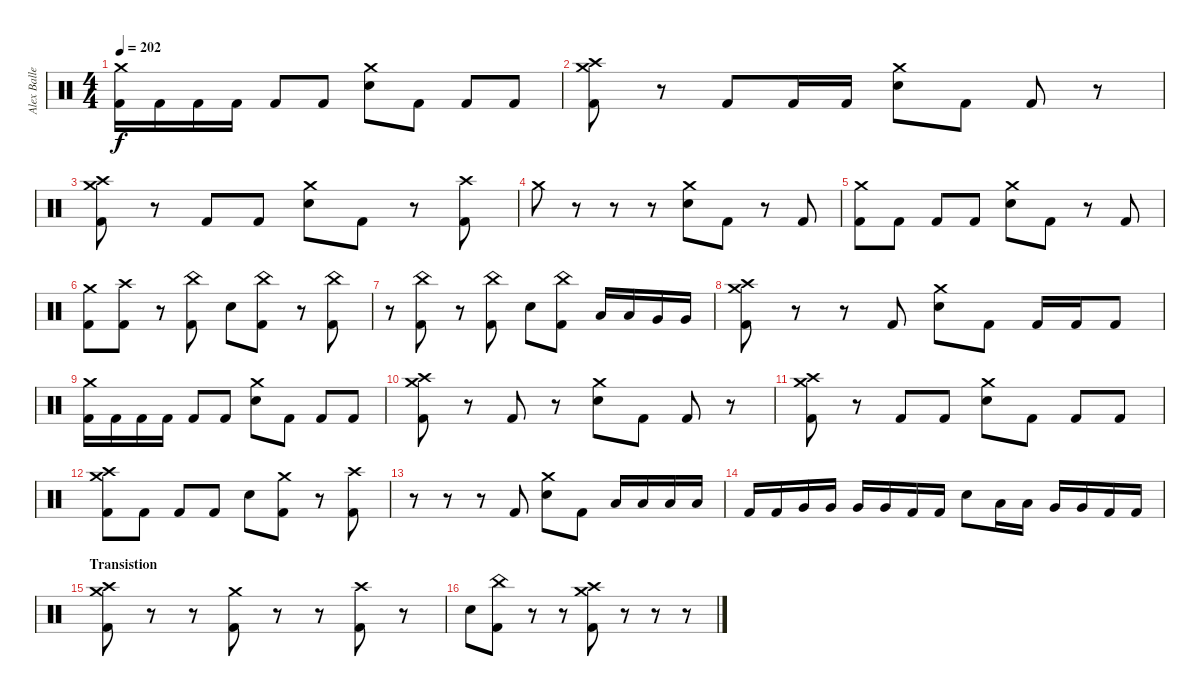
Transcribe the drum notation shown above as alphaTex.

\track ("Alex Ballew" "Alex Balle") {instrument percussion}
\staff {score}
\articulation defaults
\ts (4 4)
\tempo 202
\clef neutral
\ks c
("Crash medium (hit)" "Kick (hit) 2").16{dy f} "Kick (hit) 2".16 "Kick (hit) 2".16 "Kick (hit) 2".16 "Kick (hit) 2".8 "Kick (hit) 2".8 ("Crash medium (hit)" "Electric Snare (hit)").8 "Kick (hit) 2".8 "Kick (hit) 2".8 "Kick (hit) 2".8 |
("Crash medium (hit)" "Crash high (hit)" "Kick (hit) 2").8 r.8 "Kick (hit) 2".8 "Kick (hit) 2".16 "Kick (hit) 2".16 ("Crash medium (hit)" "Electric Snare (hit)").8 "Kick (hit) 2".8 "Kick (hit) 2".8 r.8 |
("Crash medium (hit)" "Crash high (hit)" "Kick (hit) 2").8 r.8 "Kick (hit) 2".8 "Kick (hit) 2".8 ("Crash medium (hit)" "Electric Snare (hit)").8 "Kick (hit) 2".8 r.8 ("Crash high (hit)" "Kick (hit) 2").8 |
"Crash medium (hit)".8 r.8 r.8 r.8 ("Crash medium (hit)" "Electric Snare (hit)").8 "Kick (hit) 2".8 r.8 "Kick (hit) 2".8 |
("Crash medium (hit)" "Kick (hit) 2").8 "Kick (hit) 2".8 "Kick (hit) 2".8 "Kick (hit) 2".8 ("Crash medium (hit)" "Electric Snare (hit)").8 "Kick (hit) 2".8 r.8 "Kick (hit) 2".8 |
("Crash medium (hit)" "Kick (hit) 2").8 ("Crash high (hit)" "Kick (hit) 2").8 r.8 ("China (hit)" "Kick (hit) 2").8 "Electric Snare (hit)".8 ("China (hit)" "Kick (hit) 2").8 r.8 ("China (hit)" "Kick (hit) 2").8 |
r.8 ("China (hit)" "Kick (hit) 2").8 r.8 ("China (hit)" "Kick (hit) 2").8 "Electric Snare (hit)".8 ("China (hit)" "Kick (hit) 2").8 "Low Tom (hit)".16 "Low Tom (hit)".16 "Very Low Tom (hit)".16 "Very Low Tom (hit)".16 |
("Crash medium (hit)" "Crash high (hit)" "Kick (hit) 2").8 r.8 r.8 "Kick (hit) 2".8 ("Crash medium (hit)" "Electric Snare (hit)").8 "Kick (hit) 2".8 "Kick (hit) 2".16 "Kick (hit) 2".16 "Kick (hit) 2".8 |
("Crash medium (hit)" "Kick (hit) 2").16 "Kick (hit) 2".16 "Kick (hit) 2".16 "Kick (hit) 2".16 "Kick (hit) 2".8 "Kick (hit) 2".8 ("Crash medium (hit)" "Electric Snare (hit)").8 "Kick (hit) 2".8 "Kick (hit) 2".8 "Kick (hit) 2".8 |
("Crash medium (hit)" "Crash high (hit)" "Kick (hit) 2").8 r.8 "Kick (hit) 2".8 r.8 ("Crash medium (hit)" "Electric Snare (hit)").8 "Kick (hit) 2".8 "Kick (hit) 2".8 r.8 |
("Crash medium (hit)" "Crash high (hit)" "Kick (hit) 2").8 r.8 "Kick (hit) 2".8 "Kick (hit) 2".8 ("Crash medium (hit)" "Electric Snare (hit)").8 "Kick (hit) 2".8 "Kick (hit) 2".8 "Kick (hit) 2".8 |
("Crash medium (hit)" "Crash high (hit)" "Kick (hit) 2").8 "Kick (hit) 2".8 "Kick (hit) 2".8 "Kick (hit) 2".8 "Electric Snare (hit)".8 ("Crash medium (hit)" "Kick (hit) 2").8 r.8 ("Crash high (hit)" "Kick (hit) 2").8 |
r.8 r.8 r.8 "Kick (hit) 2".8 ("Crash medium (hit)" "Electric Snare (hit)").8 "Kick (hit) 2".8 "Low Tom (hit)".16 "Low Tom (hit)".16 "Low Tom (hit)".16 "Low Tom (hit)".16 |
"Kick (hit) 2".16 "Kick (hit) 2".16 "Very Low Tom (hit)".16 "Very Low Tom (hit)".16 "Very Low Tom (hit)".16 "Very Low Tom (hit)".16 "Kick (hit) 2".16 "Kick (hit) 2".16 "Electric Snare (hit)".8 "Low Tom (hit)".16 "Low Tom (hit)".16 "Very Low Tom (hit)".16 "Very Low Tom (hit)".16 "Kick (hit) 2".16 "Kick (hit) 2".16 |
\section ("" "Transistion")
("Crash medium (hit)" "Crash high (hit)" "Kick (hit) 2").8 r.8 r.8 ("Crash medium (hit)" "Kick (hit) 2").8 r.8 r.8 ("Crash high (hit)" "Kick (hit) 2").8 r.8 |
"Electric Snare (hit)".8 ("China (hit)" "Kick (hit) 2").8 r.8 r.8 ("Crash medium (hit)" "Crash high (hit)" "Kick (hit) 2").8 r.8 r.8 r.8
